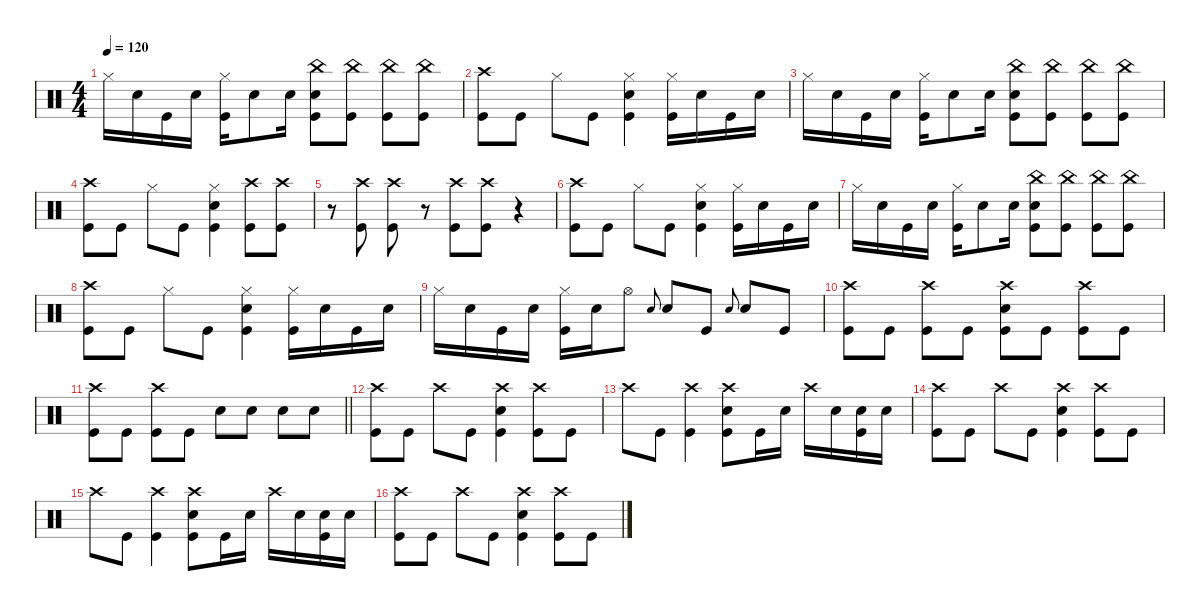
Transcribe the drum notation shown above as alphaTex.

\defaultSystemsLayout 4
\hideDynamics
\bracketExtendMode nobrackets
\singleTrackTrackNamePolicy hidden
\multiTrackTrackNamePolicy hidden
\firstSystemTrackNameMode fullname
\firstSystemTrackNameOrientation horizontal
\otherSystemsTrackNameOrientation horizontal
\track ("Drums" "drm.") {instrument percussion}
\staff {score}
\articulation defaults
\ts (4 4)
\tempo 120
\clef neutral
\ks c "Hi-Hat (closed)".16{dy f beam Down} "Snare (hit) 2".16{beam Down} "Kick (hit)".16{beam Down} "Snare (hit) 2".16{beam Down}
("Kick (hit)" "Hi-Hat (closed)").16{beam Down} "Snare (hit) 2".8{beam Down} "Snare (hit) 2".16{beam Down} ("Snare (hit) 2" "China (hit)" "Kick (hit)").8{beam Down} ("China (hit)" "Kick (hit)").8{beam Down} ("China (hit)" "Kick (hit)").8{beam Down} ("China (hit)" "Kick (hit)").8{beam Down} |
("Kick (hit)" "Crash high (hit)").8{beam Down} "Kick (hit)".8{beam Down} "Hi-Hat (closed)".8{beam Down} "Kick (hit)".8{beam Down} ("Kick (hit)" "Snare (hit) 2" "Hi-Hat (closed)").4{beam Down} ("Kick (hit)" "Hi-Hat (closed)").16{beam Down} "Snare (hit) 2".16{beam Down} "Kick (hit)".16{beam Down} "Snare (hit) 2".16{beam Down} |
"Hi-Hat (closed)".16{beam Down} "Snare (hit) 2".16{beam Down} "Kick (hit)".16{beam Down} "Snare (hit) 2".16{beam Down} ("Kick (hit)" "Hi-Hat (closed)").16{beam Down} "Snare (hit) 2".8{beam Down} "Snare (hit) 2".16{beam Down} ("Snare (hit) 2" "China (hit)" "Kick (hit)").8{beam Down} ("China (hit)" "Kick (hit)").8{beam Down} ("China (hit)" "Kick (hit)").8{beam Down} ("China (hit)" "Kick (hit)").8{beam Down} |
("Kick (hit)" "Crash high (hit)").8{beam Down} "Kick (hit)".8{beam Down} "Hi-Hat (closed)".8{beam Down} "Kick (hit)".8{beam Down} ("Kick (hit)" "Snare (hit) 2" "Hi-Hat (closed)").4{beam Down} ("Kick (hit)" "Crash high (hit)").8{beam Down} ("Crash high (hit)" "Kick (hit)").8{beam Down} |
r.8{beam Down} ("Kick (hit)" "Crash high (hit)").8{beam Down} ("Crash high (hit)" "Kick (hit)").8{beam Down} r.8{beam Down} ("Crash high (hit)" "Kick (hit)").8{beam Down} ("Kick (hit)" "Crash high (hit)").8{beam Down} r.4{beam Down} |
("Kick (hit)" "Crash high (hit)").8{beam Down} "Kick (hit)".8{beam Down} "Hi-Hat (closed)".8{beam Down} "Kick (hit)".8{beam Down} ("Kick (hit)" "Snare (hit) 2" "Hi-Hat (closed)").4{beam Down} ("Kick (hit)" "Hi-Hat (closed)").16{beam Down} "Snare (hit) 2".16{beam Down} "Kick (hit)".16{beam Down} "Snare (hit) 2".16{beam Down} |
"Hi-Hat (closed)".16{beam Down} "Snare (hit) 2".16{beam Down} "Kick (hit)".16{beam Down} "Snare (hit) 2".16{beam Down} ("Kick (hit)" "Hi-Hat (closed)").16{beam Down} "Snare (hit) 2".8{beam Down} "Snare (hit) 2".16{beam Down} ("Snare (hit) 2" "China (hit)" "Kick (hit)").8{beam Down} ("China (hit)" "Kick (hit)").8{beam Down} ("China (hit)" "Kick (hit)").8{beam Down} ("China (hit)" "Kick (hit)").8{beam Down} |
("Crash high (hit)" "Kick (hit)").8{beam Down} "Kick (hit)".8{beam Down} "Hi-Hat (closed)".8{beam Down} "Kick (hit)".8{beam Down} ("Snare (hit) 2" "Hi-Hat (closed)" "Kick (hit)").4{beam Down} ("Hi-Hat (closed)" "Kick (hit)").16{beam Down} "Snare (hit) 2".16{beam Down} "Kick (hit)".16{beam Down} "Snare (hit) 2".16{beam Down} |
"Hi-Hat (closed)".16{beam Down} "Snare (hit) 2".16{beam Down} "Kick (hit)".16{beam Down} "Snare (hit) 2".16{beam Down} ("Hi-Hat (closed)" "Kick (hit)").16{beam Down} "Snare (hit) 2".16{beam Down} "Hi-Hat (open)".8{beam Down} "Snare (hit) 2".8{gr onbeat dy mp beam Up} "Snare (hit) 2".8{dy f beam Up} "Kick (hit)".8{beam Up} "Snare (hit) 2".8{gr onbeat dy mp beam Up} "Snare (hit) 2".8{dy f beam Up} "Kick (hit)".8{beam Up} |
("Crash high (hit)" "Kick (hit)").8{beam Down} "Kick (hit)".8{beam Down} ("Crash high (hit)" "Kick (hit)").8{beam Down} "Kick (hit)".8{beam Down} ("Snare (hit) 2" "Crash high (hit)" "Kick (hit)").8{beam Down} "Kick (hit)".8{beam Down} ("Crash high (hit)" "Kick (hit)").8{beam Down} "Kick (hit)".8{beam Down} |
\barLineRight lightlight
("Crash high (hit)" "Kick (hit)").8{beam Down} "Kick (hit)".8{beam Down} ("Crash high (hit)" "Kick (hit)").8{beam Down} "Kick (hit)".8{beam Down} "Snare (hit) 2".8{beam Down} "Snare (hit) 2".8{beam Down} "Snare (hit) 2".8{beam Down} "Snare (hit) 2".8{beam Down} |
("Kick (hit)" "Crash high (hit)").8{beam Down} "Kick (hit)".8{beam Down} "Crash high (hit)".8{beam Down} "Kick (hit)".8{beam Down} ("Kick (hit)" "Snare (hit) 2" "Crash high (hit)").4{beam Down} ("Kick (hit)" "Crash high (hit)").8{beam Down} "Kick (hit)".8{beam Down} |
"Crash high (hit)".8{beam Down} "Kick (hit)".8{beam Down} ("Kick (hit)" "Crash high (hit)").4{beam Down} ("Kick (hit)" "Snare (hit) 2" "Crash high (hit)").8{beam Down} "Kick (hit)".16{beam Down} "Snare (hit) 2".16{beam Down} "Crash high (hit)".16{beam Down} "Snare (hit) 2".16{beam Down} ("Snare (hit) 2" "Kick (hit)").16{beam Down} "Snare (hit) 2".16{beam Down} |
("Crash high (hit)" "Kick (hit)").8{beam Down} "Kick (hit)".8{beam Down} "Crash high (hit)".8{beam Down} "Kick (hit)".8{beam Down} ("Snare (hit) 2" "Crash high (hit)" "Kick (hit)").4{beam Down} ("Crash high (hit)" "Kick (hit)").8{beam Down} "Kick (hit)".8{beam Down} |
"Crash high (hit)".8{beam Down} "Kick (hit)".8{beam Down} ("Kick (hit)" "Crash high (hit)").4{beam Down} ("Kick (hit)" "Snare (hit) 2" "Crash high (hit)").8{beam Down} "Kick (hit)".16{beam Down} "Snare (hit) 2".16{beam Down} "Crash high (hit)".16{beam Down} "Snare (hit) 2".16{beam Down} ("Kick (hit)" "Snare (hit) 2").16{beam Down} "Snare (hit) 2".16{beam Down} |
("Crash high (hit)" "Kick (hit)").8{beam Down} "Kick (hit)".8{beam Down} "Crash high (hit)".8{beam Down} "Kick (hit)".8{beam Down} ("Snare (hit) 2" "Crash high (hit)" "Kick (hit)").4{beam Down} ("Crash high (hit)" "Kick (hit)").8{beam Down} "Kick (hit)".8{beam Down}
